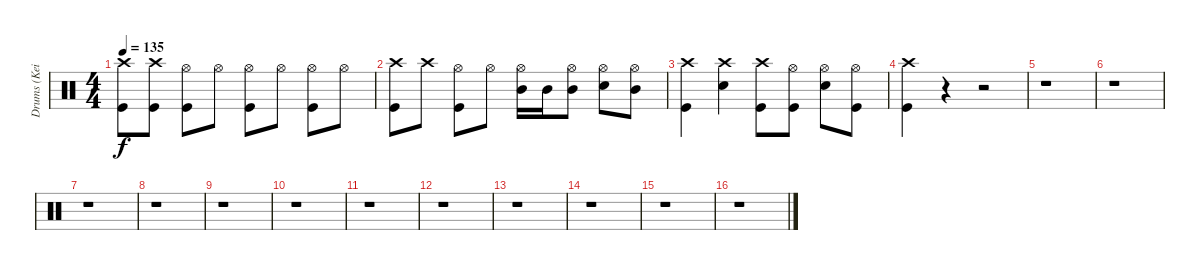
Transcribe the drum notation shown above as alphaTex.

\track ("Drums (Keith)" "Drums (Kei") {instrument percussion}
\staff {score}
\articulation defaults
\ts (4 4)
\tempo 135
\clef neutral
\ks c
("Crash high (hit)" "Kick (hit)").8{dy f} ("Crash high (hit)" "Kick (hit)").8 ("Hi-Hat (open)" "Kick (hit)").8 "Hi-Hat (open)".8 ("Hi-Hat (open)" "Kick (hit)").8 "Hi-Hat (open)".8 ("Hi-Hat (open)" "Kick (hit)").8 "Hi-Hat (open)".8 |
("Crash high (hit)" "Kick (hit)").8 "Crash high (hit)".8 ("Hi-Hat (open)" "Kick (hit)").8 "Hi-Hat (open)".8 ("Hi-Hat (open)" "Mid Tom (hit)").16 "Mid Tom (hit)".16 ("Hi-Hat (open)" "Mid Tom (hit)").8 ("Hi-Hat (open)" "Snare (hit) 2").8 ("Hi-Hat (open)" "Mid Tom (hit)").8 |
("Crash high (hit)" "Kick (hit)").4 ("Crash high (hit)" "Snare (hit) 2").4 ("Crash high (hit)" "Kick (hit)").8 ("Hi-Hat (open)" "Kick (hit)").8 ("Hi-Hat (open)" "Snare (hit) 2").8 ("Hi-Hat (open)" "Kick (hit)").8 |
("Crash high (hit)" "Kick (hit)").4 r.4 r.2 |
r.1 |
r.1 |
r.1 |
r.1 |
r.1 |
r.1 |
r.1 |
r.1 |
r.1 |
r.1 |
r.1 |
r.1
